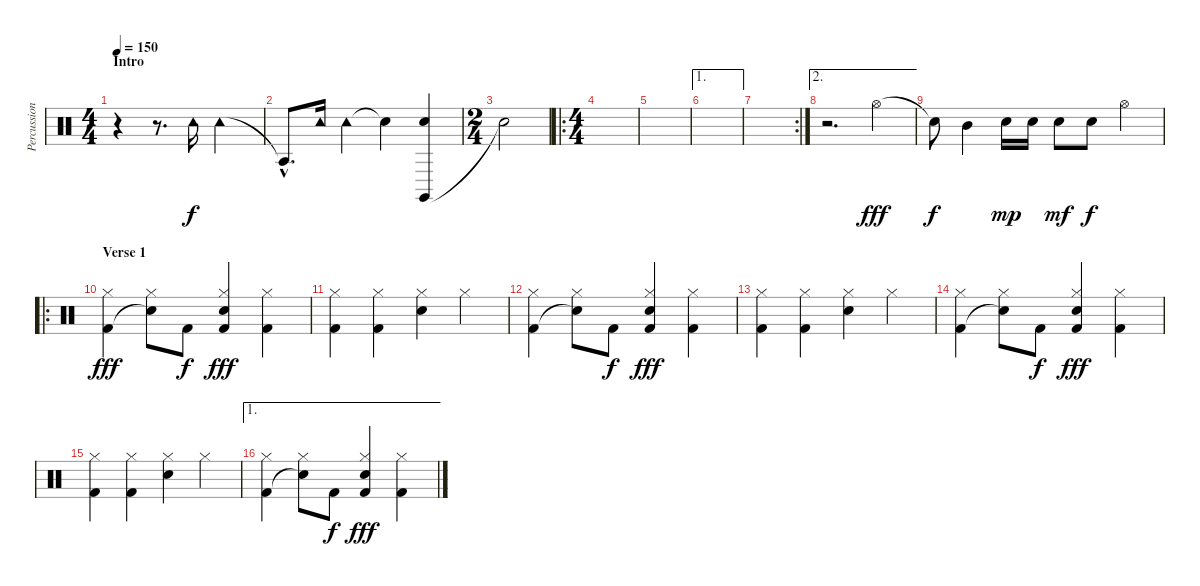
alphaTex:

\track ("Percussion" "Percussion") {instrument percussion}
\staff {score}
\articulation defaults
\ts (4 4)
\section ("" "Intro")
\tempo 150
\clef neutral
\ks c
r.4{dy f} r.8{d} "Tambourine (hit)".16 "Tambourine (hit)".2 |
"Agogo tow (hit)"{hac t}.8{d} "Tambourine (hit)".16 "Tambourine (hit)".4 "Snare (hit)"{t}.4 ("Claves (hit)" "Snare (hit)").4 |
\ts (2 4)
"Snare (hit)"{t}.2 |
\ro
\ts (4 4)
|
|
\ae 1
|
\rc 2
|
\ae 2
r.2{d} "Hi-Hat (open)".4{dy fff} |
"Snare (hit)"{t}.8{dy f} "Mid Tom (hit)".4 "Snare (hit) 2".16{dy mp} "Snare (hit) 2".16 "Electric Snare (hit)".8{dy mf} "Electric Snare (hit)".8{dy f} "Hi-Hat (open)".4 |
\ro
\section ("" "Verse 1")
("Hi-Hat (closed)" "Kick (hit) 2").4{dy fff} ("Hi-Hat (closed)" "Snare (hit)"{t}).8 "Kick (hit) 2".8{dy f} ("Electric Snare (hit)" "Hi-Hat (closed)" "Kick (hit) 2").4{dy fff} ("Hi-Hat (closed)" "Kick (hit) 2").4 |
("Hi-Hat (closed)" "Kick (hit) 2").4 ("Hi-Hat (closed)" "Kick (hit) 2").4 ("Electric Snare (hit)" "Hi-Hat (closed)").4 "Hi-Hat (closed)".4 |
("Hi-Hat (closed)" "Kick (hit) 2").4 ("Hi-Hat (closed)" "Snare (hit)"{t}).8 "Kick (hit) 2".8{dy f} ("Electric Snare (hit)" "Hi-Hat (closed)" "Kick (hit) 2").4{dy fff} ("Hi-Hat (closed)" "Kick (hit) 2").4 |
("Hi-Hat (closed)" "Kick (hit) 2").4 ("Hi-Hat (closed)" "Kick (hit) 2").4 ("Electric Snare (hit)" "Hi-Hat (closed)").4 "Hi-Hat (closed)".4 |
("Hi-Hat (closed)" "Kick (hit) 2").4 ("Hi-Hat (closed)" "Snare (hit)"{t}).8 "Kick (hit) 2".8{dy f} ("Electric Snare (hit)" "Hi-Hat (closed)" "Kick (hit) 2").4{dy fff} ("Hi-Hat (closed)" "Kick (hit) 2").4 |
("Hi-Hat (closed)" "Kick (hit) 2").4 ("Hi-Hat (closed)" "Kick (hit) 2").4 ("Electric Snare (hit)" "Hi-Hat (closed)").4 "Hi-Hat (closed)".4 |
\ae 1
("Hi-Hat (closed)" "Kick (hit) 2").4 ("Hi-Hat (closed)" "Snare (hit)"{t}).8 "Kick (hit) 2".8{dy f} ("Electric Snare (hit)" "Hi-Hat (closed)" "Kick (hit) 2").4{dy fff} ("Hi-Hat (closed)" "Kick (hit) 2").4
